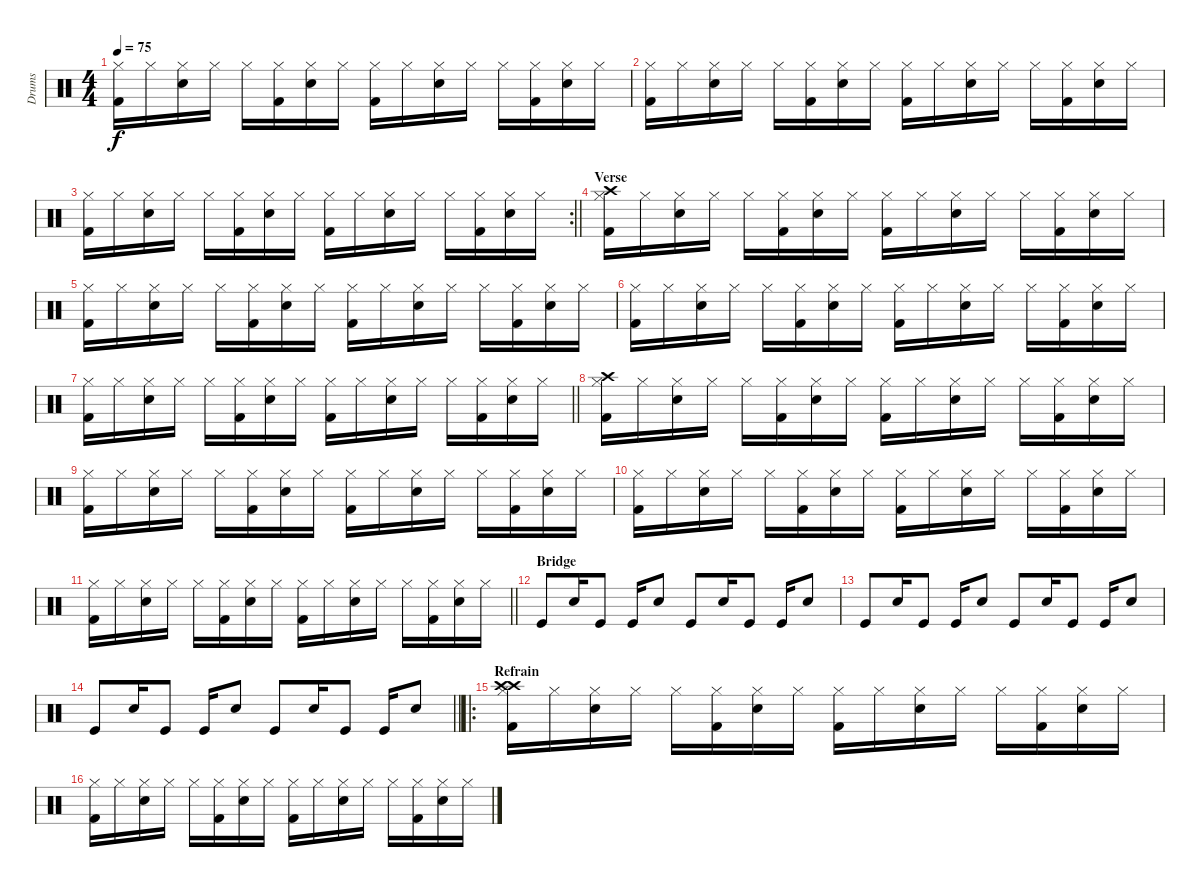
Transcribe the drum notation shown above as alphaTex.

\track ("Drums" "Drums") {instrument percussion}
\staff {score}
\articulation defaults
\ts (4 4)
\tempo 75
\clef neutral
\ks c
("Hi-Hat (closed)" "Kick (hit) 2").16{dy f} "Hi-Hat (closed)".16 ("Hi-Hat (closed)" "Snare (hit) 2").16 "Hi-Hat (closed)".16 "Hi-Hat (closed)".16 ("Hi-Hat (closed)" "Kick (hit) 2").16 ("Hi-Hat (closed)" "Snare (hit) 2").16 "Hi-Hat (closed)".16 ("Hi-Hat (closed)" "Kick (hit) 2").16 "Hi-Hat (closed)".16 ("Hi-Hat (closed)" "Snare (hit) 2").16 "Hi-Hat (closed)".16 "Hi-Hat (closed)".16 ("Hi-Hat (closed)" "Kick (hit) 2").16 ("Hi-Hat (closed)" "Snare (hit) 2").16 "Hi-Hat (closed)".16 |
("Hi-Hat (closed)" "Kick (hit) 2").16 "Hi-Hat (closed)".16 ("Hi-Hat (closed)" "Snare (hit) 2").16 "Hi-Hat (closed)".16 "Hi-Hat (closed)".16 ("Hi-Hat (closed)" "Kick (hit) 2").16 ("Hi-Hat (closed)" "Snare (hit) 2").16 "Hi-Hat (closed)".16 ("Hi-Hat (closed)" "Kick (hit) 2").16 "Hi-Hat (closed)".16 ("Hi-Hat (closed)" "Snare (hit) 2").16 "Hi-Hat (closed)".16 "Hi-Hat (closed)".16 ("Hi-Hat (closed)" "Kick (hit) 2").16 ("Hi-Hat (closed)" "Snare (hit) 2").16 "Hi-Hat (closed)".16 |
\rc 2
\barLineRight lightlight
("Hi-Hat (closed)" "Kick (hit) 2").16 "Hi-Hat (closed)".16 ("Hi-Hat (closed)" "Snare (hit) 2").16 "Hi-Hat (closed)".16 "Hi-Hat (closed)".16 ("Hi-Hat (closed)" "Kick (hit) 2").16 ("Hi-Hat (closed)" "Snare (hit) 2").16 "Hi-Hat (closed)".16 ("Hi-Hat (closed)" "Kick (hit) 2").16 "Hi-Hat (closed)".16 ("Hi-Hat (closed)" "Snare (hit) 2").16 "Hi-Hat (closed)".16 "Hi-Hat (closed)".16 ("Hi-Hat (closed)" "Kick (hit) 2").16 ("Hi-Hat (closed)" "Snare (hit) 2").16 "Hi-Hat (closed)".16 |
\section ("" "Verse")
("Hi-Hat (closed)" "Kick (hit) 2" "Crash high (hit)").16 "Hi-Hat (closed)".16 ("Hi-Hat (closed)" "Snare (hit) 2").16 "Hi-Hat (closed)".16 "Hi-Hat (closed)".16 ("Hi-Hat (closed)" "Kick (hit) 2").16 ("Hi-Hat (closed)" "Snare (hit) 2").16 "Hi-Hat (closed)".16 ("Hi-Hat (closed)" "Kick (hit) 2").16 "Hi-Hat (closed)".16 ("Hi-Hat (closed)" "Snare (hit) 2").16 "Hi-Hat (closed)".16 "Hi-Hat (closed)".16 ("Hi-Hat (closed)" "Kick (hit) 2").16 ("Hi-Hat (closed)" "Snare (hit) 2").16 "Hi-Hat (closed)".16 |
("Hi-Hat (closed)" "Kick (hit) 2").16 "Hi-Hat (closed)".16 ("Hi-Hat (closed)" "Snare (hit) 2").16 "Hi-Hat (closed)".16 "Hi-Hat (closed)".16 ("Hi-Hat (closed)" "Kick (hit) 2").16 ("Hi-Hat (closed)" "Snare (hit) 2").16 "Hi-Hat (closed)".16 ("Hi-Hat (closed)" "Kick (hit) 2").16 "Hi-Hat (closed)".16 ("Hi-Hat (closed)" "Snare (hit) 2").16 "Hi-Hat (closed)".16 "Hi-Hat (closed)".16 ("Hi-Hat (closed)" "Kick (hit) 2").16 ("Hi-Hat (closed)" "Snare (hit) 2").16 "Hi-Hat (closed)".16 |
("Hi-Hat (closed)" "Kick (hit) 2").16 "Hi-Hat (closed)".16 ("Hi-Hat (closed)" "Snare (hit) 2").16 "Hi-Hat (closed)".16 "Hi-Hat (closed)".16 ("Hi-Hat (closed)" "Kick (hit) 2").16 ("Hi-Hat (closed)" "Snare (hit) 2").16 "Hi-Hat (closed)".16 ("Hi-Hat (closed)" "Kick (hit) 2").16 "Hi-Hat (closed)".16 ("Hi-Hat (closed)" "Snare (hit) 2").16 "Hi-Hat (closed)".16 "Hi-Hat (closed)".16 ("Hi-Hat (closed)" "Kick (hit) 2").16 ("Hi-Hat (closed)" "Snare (hit) 2").16 "Hi-Hat (closed)".16 |
\barLineRight lightlight
("Hi-Hat (closed)" "Kick (hit) 2").16 "Hi-Hat (closed)".16 ("Hi-Hat (closed)" "Snare (hit) 2").16 "Hi-Hat (closed)".16 "Hi-Hat (closed)".16 ("Hi-Hat (closed)" "Kick (hit) 2").16 ("Hi-Hat (closed)" "Snare (hit) 2").16 "Hi-Hat (closed)".16 ("Hi-Hat (closed)" "Kick (hit) 2").16 "Hi-Hat (closed)".16 ("Hi-Hat (closed)" "Snare (hit) 2").16 "Hi-Hat (closed)".16 "Hi-Hat (closed)".16 ("Hi-Hat (closed)" "Kick (hit) 2").16 ("Hi-Hat (closed)" "Snare (hit) 2").16 "Hi-Hat (closed)".16 |
("Hi-Hat (closed)" "Kick (hit) 2" "Crash high (hit)").16 "Hi-Hat (closed)".16 ("Hi-Hat (closed)" "Snare (hit) 2").16 "Hi-Hat (closed)".16 "Hi-Hat (closed)".16 ("Hi-Hat (closed)" "Kick (hit) 2").16 ("Hi-Hat (closed)" "Snare (hit) 2").16 "Hi-Hat (closed)".16 ("Hi-Hat (closed)" "Kick (hit) 2").16 "Hi-Hat (closed)".16 ("Hi-Hat (closed)" "Snare (hit) 2").16 "Hi-Hat (closed)".16 "Hi-Hat (closed)".16 ("Hi-Hat (closed)" "Kick (hit) 2").16 ("Hi-Hat (closed)" "Snare (hit) 2").16 "Hi-Hat (closed)".16 |
("Hi-Hat (closed)" "Kick (hit) 2").16 "Hi-Hat (closed)".16 ("Hi-Hat (closed)" "Snare (hit) 2").16 "Hi-Hat (closed)".16 "Hi-Hat (closed)".16 ("Hi-Hat (closed)" "Kick (hit) 2").16 ("Hi-Hat (closed)" "Snare (hit) 2").16 "Hi-Hat (closed)".16 ("Hi-Hat (closed)" "Kick (hit) 2").16 "Hi-Hat (closed)".16 ("Hi-Hat (closed)" "Snare (hit) 2").16 "Hi-Hat (closed)".16 "Hi-Hat (closed)".16 ("Hi-Hat (closed)" "Kick (hit) 2").16 ("Hi-Hat (closed)" "Snare (hit) 2").16 "Hi-Hat (closed)".16 |
("Hi-Hat (closed)" "Kick (hit) 2").16 "Hi-Hat (closed)".16 ("Hi-Hat (closed)" "Snare (hit) 2").16 "Hi-Hat (closed)".16 "Hi-Hat (closed)".16 ("Hi-Hat (closed)" "Kick (hit) 2").16 ("Hi-Hat (closed)" "Snare (hit) 2").16 "Hi-Hat (closed)".16 ("Hi-Hat (closed)" "Kick (hit) 2").16 "Hi-Hat (closed)".16 ("Hi-Hat (closed)" "Snare (hit) 2").16 "Hi-Hat (closed)".16 "Hi-Hat (closed)".16 ("Hi-Hat (closed)" "Kick (hit) 2").16 ("Hi-Hat (closed)" "Snare (hit) 2").16 "Hi-Hat (closed)".16 |
\barLineRight lightlight
("Hi-Hat (closed)" "Kick (hit) 2").16 "Hi-Hat (closed)".16 ("Hi-Hat (closed)" "Snare (hit) 2").16 "Hi-Hat (closed)".16 "Hi-Hat (closed)".16 ("Hi-Hat (closed)" "Kick (hit) 2").16 ("Hi-Hat (closed)" "Snare (hit) 2").16 "Hi-Hat (closed)".16 ("Hi-Hat (closed)" "Kick (hit) 2").16 "Hi-Hat (closed)".16 ("Hi-Hat (closed)" "Snare (hit) 2").16 "Hi-Hat (closed)".16 "Hi-Hat (closed)".16 ("Hi-Hat (closed)" "Kick (hit) 2").16 ("Hi-Hat (closed)" "Snare (hit) 2").16 "Hi-Hat (closed)".16 |
\section ("" "Bridge")
"Kick (hit)".8 "Snare (hit) 2".16 "Kick (hit)".8 "Kick (hit)".16 "Snare (hit) 2".8 "Kick (hit)".8 "Snare (hit) 2".16 "Kick (hit)".8 "Kick (hit)".16 "Snare (hit) 2".8 |
"Kick (hit)".8 "Snare (hit) 2".16 "Kick (hit)".8 "Kick (hit)".16 "Snare (hit) 2".8 "Kick (hit)".8 "Snare (hit) 2".16 "Kick (hit)".8 "Kick (hit)".16 "Snare (hit) 2".8 |
\barLineRight lightlight "Kick (hit)".8 "Snare (hit) 2".16 "Kick (hit)".8 "Kick (hit)".16 "Snare (hit) 2".8 "Kick (hit)".8 "Snare (hit) 2".16 "Kick (hit)".8 "Kick (hit)".16 "Snare (hit) 2".8
|
\ro
\section ("" "Refrain")
("Hi-Hat (closed)" "Crash high (hit)" "Kick (hit) 2" "Crash high (hit)").16 "Hi-Hat (closed)".16 ("Hi-Hat (closed)" "Snare (hit) 2").16 "Hi-Hat (closed)".16 "Hi-Hat (closed)".16 ("Hi-Hat (closed)" "Kick (hit) 2").16 ("Hi-Hat (closed)" "Snare (hit) 2").16 "Hi-Hat (closed)".16 ("Hi-Hat (closed)" "Kick (hit) 2").16 "Hi-Hat (closed)".16 ("Hi-Hat (closed)" "Snare (hit) 2").16 "Hi-Hat (closed)".16 "Hi-Hat (closed)".16 ("Hi-Hat (closed)" "Kick (hit) 2").16 ("Hi-Hat (closed)" "Snare (hit) 2").16 "Hi-Hat (closed)".16 |
("Hi-Hat (closed)" "Kick (hit) 2").16 "Hi-Hat (closed)".16 ("Hi-Hat (closed)" "Snare (hit) 2").16 "Hi-Hat (closed)".16 "Hi-Hat (closed)".16 ("Hi-Hat (closed)" "Kick (hit) 2").16 ("Hi-Hat (closed)" "Snare (hit) 2").16 "Hi-Hat (closed)".16 ("Hi-Hat (closed)" "Kick (hit) 2").16 "Hi-Hat (closed)".16 ("Hi-Hat (closed)" "Snare (hit) 2").16 "Hi-Hat (closed)".16 "Hi-Hat (closed)".16 ("Hi-Hat (closed)" "Kick (hit) 2").16 ("Hi-Hat (closed)" "Snare (hit) 2").16 "Hi-Hat (closed)".16
